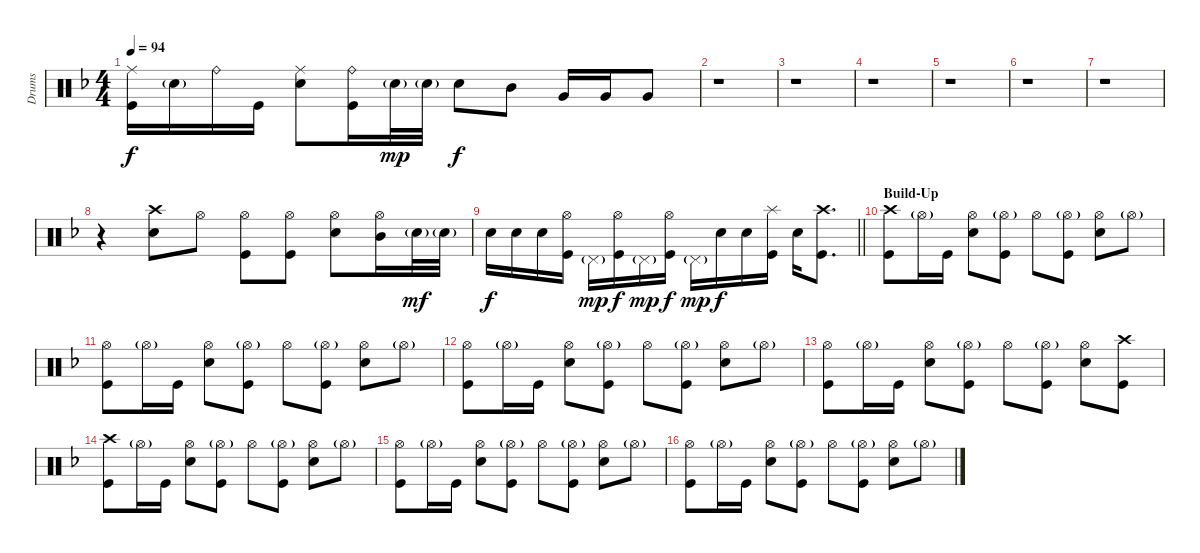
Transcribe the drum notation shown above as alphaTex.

\track ("Drums" "Drums") {instrument percussion bank 10}
\staff {score}
\articulation defaults
\ts (4 4)
\tempo 94
\clef neutral
\ks dminor
("Ride (middle)" "Kick (hit)").16{dy f} "Electric Snare (hit)"{g}.16 "Ride (bell)".16 "Kick (hit)".16 ("Ride (middle)" "Electric Snare (hit)").8 ("Ride (bell)" "Kick (hit)").16 "Electric Snare (hit)"{g}.32{dy mp} "Electric Snare (hit)"{g}.32 "Electric Snare (hit)".8{dy f} "Mid Tom (hit)".8 "Very Low Tom (hit)".16 "Very Low Tom (hit)".16 "Very Low Tom (hit)".8 |
r.1 |
r.1 |
r.1 |
r.1 |
r.1 |
r.1 |
r.4 ("Crash high (hit)" "Electric Snare (hit)").8 "Hi-Hat (open)".8 ("Hi-Hat (open)" "Kick (hit)").8 ("Hi-Hat (open)" "Kick (hit)").8 ("Hi-Hat (open)" "Electric Snare (hit)").8 ("Hi-Hat (open)" "Mid Tom (hit)").16 "Electric Snare (hit)"{g}.32{dy mf} "Electric Snare (hit)"{g}.32 |
\barLineRight lightlight "Electric Snare (hit)".16{dy f} "Electric Snare (hit)".16 "Electric Snare (hit)".16
("Hi-Hat (open)" "Kick (hit)").16 "Pedal Hi-Hat (hit)"{g}.16{dy mp} ("Hi-Hat (open)" "Kick (hit)").16{dy f} "Pedal Hi-Hat (hit)"{g}.16{dy mp} ("Hi-Hat (open)" "Kick (hit)").16{dy f} "Pedal Hi-Hat (hit)"{g}.16{dy mp} "Electric Snare (hit)".16{dy f} "Electric Snare (hit)".16 ("Splash (hit)" "Kick (hit)").16 "Electric Snare (hit)".16 ("Crash high (hit)" "Kick (hit)").8{d} |
\section ("" "Build-Up")
("Crash high (hit)" "Kick (hit)").8 "Hi-Hat (open)"{g}.16 "Kick (hit)".16 ("Hi-Hat (open)" "Electric Snare (hit)").8 ("Hi-Hat (open)"{g} "Kick (hit)").8 "Hi-Hat (open)".8 ("Hi-Hat (open)"{g} "Kick (hit)").8 ("Hi-Hat (open)" "Electric Snare (hit)").8 "Hi-Hat (open)"{g}.8 |
("Hi-Hat (open)" "Kick (hit)").8 "Hi-Hat (open)"{g}.16 "Kick (hit)".16 ("Hi-Hat (open)" "Electric Snare (hit)").8 ("Hi-Hat (open)"{g} "Kick (hit)").8 "Hi-Hat (open)".8 ("Hi-Hat (open)"{g} "Kick (hit)").8 ("Hi-Hat (open)" "Electric Snare (hit)").8 "Hi-Hat (open)"{g}.8 |
("Hi-Hat (open)" "Kick (hit)").8 "Hi-Hat (open)"{g}.16 "Kick (hit)".16 ("Hi-Hat (open)" "Electric Snare (hit)").8 ("Hi-Hat (open)"{g} "Kick (hit)").8 "Hi-Hat (open)".8 ("Hi-Hat (open)"{g} "Kick (hit)").8 ("Hi-Hat (open)" "Electric Snare (hit)").8 "Hi-Hat (open)"{g}.8 |
("Hi-Hat (open)" "Kick (hit)").8 "Hi-Hat (open)"{g}.16 "Kick (hit)".16 ("Hi-Hat (open)" "Electric Snare (hit)").8 ("Hi-Hat (open)"{g} "Kick (hit)").8 "Hi-Hat (open)".8 ("Hi-Hat (open)"{g} "Kick (hit)").8 ("Hi-Hat (open)" "Electric Snare (hit)").8 ("Crash high (hit)" "Kick (hit)").8 |
("Crash high (hit)" "Kick (hit)").8 "Hi-Hat (open)"{g}.16 "Kick (hit)".16 ("Hi-Hat (open)" "Electric Snare (hit)").8 ("Hi-Hat (open)"{g} "Kick (hit)").8 "Hi-Hat (open)".8 ("Hi-Hat (open)"{g} "Kick (hit)").8 ("Hi-Hat (open)" "Electric Snare (hit)").8 "Hi-Hat (open)"{g}.8 |
("Hi-Hat (open)" "Kick (hit)").8 "Hi-Hat (open)"{g}.16 "Kick (hit)".16 ("Hi-Hat (open)" "Electric Snare (hit)").8 ("Hi-Hat (open)"{g} "Kick (hit)").8 "Hi-Hat (open)".8 ("Hi-Hat (open)"{g} "Kick (hit)").8 ("Hi-Hat (open)" "Electric Snare (hit)").8 "Hi-Hat (open)"{g}.8 |
("Hi-Hat (open)" "Kick (hit)").8 "Hi-Hat (open)"{g}.16 "Kick (hit)".16 ("Hi-Hat (open)" "Electric Snare (hit)").8 ("Hi-Hat (open)"{g} "Kick (hit)").8 "Hi-Hat (open)".8 ("Hi-Hat (open)"{g} "Kick (hit)").8 ("Hi-Hat (open)" "Electric Snare (hit)").8 "Hi-Hat (open)"{g}.8
